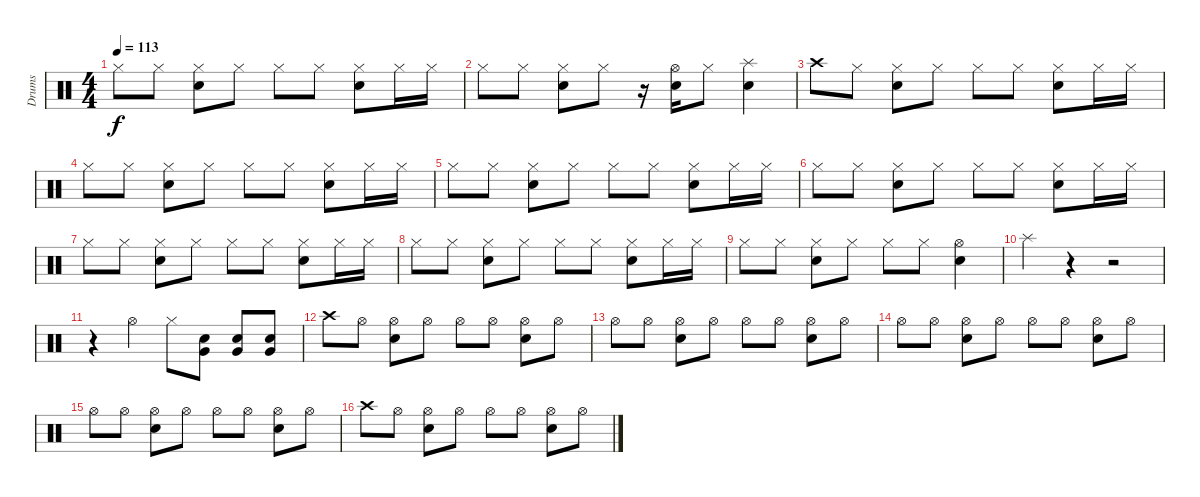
\track ("Drums" "Drums") {instrument percussion}
\staff {score}
\articulation defaults
\ts (4 4)
\tempo 113
\clef neutral
\ks c "Hi-Hat (closed)".8{dy f} "Hi-Hat (closed)".8
("Hi-Hat (closed)" "Snare (hit) 2").8 "Hi-Hat (closed)".8 "Hi-Hat (closed)".8 "Hi-Hat (closed)".8 ("Hi-Hat (closed)" "Snare (hit) 2").8 "Hi-Hat (closed)".16 "Hi-Hat (closed)".16 |
"Hi-Hat (closed)".8 "Hi-Hat (closed)".8 ("Hi-Hat (closed)" "Snare (hit) 2").8 "Hi-Hat (closed)".8 r.16 ("Hi-Hat (open)" "Snare (hit) 2").16 "Hi-Hat (closed)".8 ("Splash (hit)" "Snare (hit) 2").4 |
"Crash high (hit)".8 "Hi-Hat (closed)".8 ("Hi-Hat (closed)" "Snare (hit) 2").8 "Hi-Hat (closed)".8 "Hi-Hat (closed)".8 "Hi-Hat (closed)".8 ("Hi-Hat (closed)" "Snare (hit) 2").8 "Hi-Hat (closed)".16 "Hi-Hat (closed)".16 |
"Hi-Hat (closed)".8 "Hi-Hat (closed)".8 ("Hi-Hat (closed)" "Snare (hit) 2").8 "Hi-Hat (closed)".8 "Hi-Hat (closed)".8 "Hi-Hat (closed)".8 ("Hi-Hat (closed)" "Snare (hit) 2").8 "Hi-Hat (closed)".16 "Hi-Hat (closed)".16 |
"Hi-Hat (closed)".8 "Hi-Hat (closed)".8 ("Hi-Hat (closed)" "Snare (hit) 2").8 "Hi-Hat (closed)".8 "Hi-Hat (closed)".8 "Hi-Hat (closed)".8 ("Hi-Hat (closed)" "Snare (hit) 2").8 "Hi-Hat (closed)".16 "Hi-Hat (closed)".16 |
"Hi-Hat (closed)".8 "Hi-Hat (closed)".8 ("Hi-Hat (closed)" "Snare (hit) 2").8 "Hi-Hat (closed)".8 "Hi-Hat (closed)".8 "Hi-Hat (closed)".8 ("Hi-Hat (closed)" "Snare (hit) 2").8 "Hi-Hat (closed)".16 "Hi-Hat (closed)".16 |
"Hi-Hat (closed)".8 "Hi-Hat (closed)".8 ("Hi-Hat (closed)" "Snare (hit) 2").8 "Hi-Hat (closed)".8 "Hi-Hat (closed)".8 "Hi-Hat (closed)".8 ("Hi-Hat (closed)" "Snare (hit) 2").8 "Hi-Hat (closed)".16 "Hi-Hat (closed)".16 |
"Hi-Hat (closed)".8 "Hi-Hat (closed)".8 ("Hi-Hat (closed)" "Snare (hit) 2").8 "Hi-Hat (closed)".8 "Hi-Hat (closed)".8 "Hi-Hat (closed)".8 ("Hi-Hat (closed)" "Snare (hit) 2").8 "Hi-Hat (closed)".16 "Hi-Hat (closed)".16 |
"Hi-Hat (closed)".8 "Hi-Hat (closed)".8 ("Hi-Hat (closed)" "Snare (hit) 2").8 "Hi-Hat (closed)".8 "Hi-Hat (closed)".8 "Hi-Hat (closed)".8 ("Hi-Hat (open)" "Snare (hit) 2").4 |
"Splash (hit)".4 r.4 r.2 |
r.4 "Hi-Hat (open)".4 "Hi-Hat (closed)".8 ("Snare (hit) 2" "Very Low Tom (hit)").8 ("Snare (hit) 2" "Very Low Tom (hit)").8 ("Snare (hit) 2" "Very Low Tom (hit)").8 |
"Crash high (hit)".8 "Hi-Hat (open)".8 ("Hi-Hat (open)" "Snare (hit) 2").8 "Hi-Hat (open)".8 "Hi-Hat (open)".8 "Hi-Hat (open)".8 ("Hi-Hat (open)" "Snare (hit) 2").8 "Hi-Hat (open)".8 |
"Hi-Hat (open)".8 "Hi-Hat (open)".8 ("Hi-Hat (open)" "Snare (hit) 2").8 "Hi-Hat (open)".8 "Hi-Hat (open)".8 "Hi-Hat (open)".8 ("Hi-Hat (open)" "Snare (hit) 2").8 "Hi-Hat (open)".8 |
"Hi-Hat (open)".8 "Hi-Hat (open)".8 ("Hi-Hat (open)" "Snare (hit) 2").8 "Hi-Hat (open)".8 "Hi-Hat (open)".8 "Hi-Hat (open)".8 ("Hi-Hat (open)" "Snare (hit) 2").8 "Hi-Hat (open)".8 |
"Hi-Hat (open)".8 "Hi-Hat (open)".8 ("Hi-Hat (open)" "Snare (hit) 2").8 "Hi-Hat (open)".8 "Hi-Hat (open)".8 "Hi-Hat (open)".8 ("Hi-Hat (open)" "Snare (hit) 2").8 "Hi-Hat (open)".8 |
"Crash high (hit)".8 "Hi-Hat (open)".8 ("Hi-Hat (open)" "Snare (hit) 2").8 "Hi-Hat (open)".8 "Hi-Hat (open)".8 "Hi-Hat (open)".8 ("Hi-Hat (open)" "Snare (hit) 2").8 "Hi-Hat (open)".8
